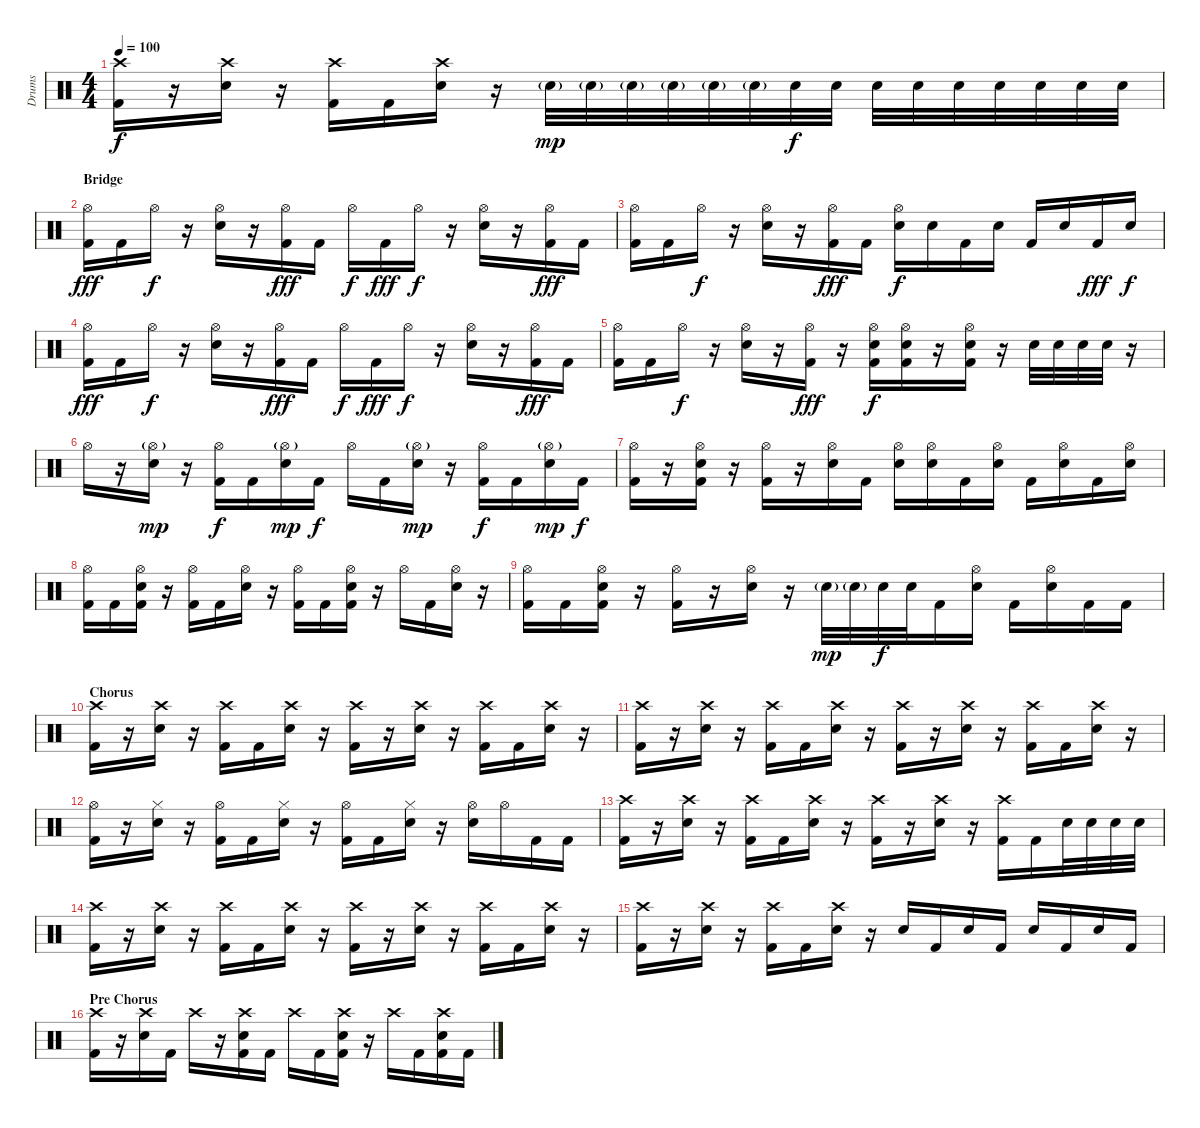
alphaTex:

\track ("Drums" "Drums") {instrument percussion}
\staff {score}
\articulation defaults
\ts (4 4)
\tempo 100
\clef neutral
\ks c
("Crash high (hit)" "Kick (hit) 2").16{dy f} r.16 ("Crash high (hit)" "Electric Snare (hit)").16 r.16 ("Crash high (hit)" "Kick (hit) 2").16 "Kick (hit) 2".16 ("Crash high (hit)" "Electric Snare (hit)").16 r.16 "Electric Snare (hit)"{g}.32{dy mp} "Electric Snare (hit)"{g}.32 "Electric Snare (hit)"{g}.32 "Electric Snare (hit)"{g}.32 "Electric Snare (hit)"{g}.32 "Electric Snare (hit)"{g}.32 "Electric Snare (hit)".32{dy f} "Electric Snare (hit)".32 "Electric Snare (hit)".32 "Electric Snare (hit)".32 "Electric Snare (hit)".32 "Electric Snare (hit)".32 "Electric Snare (hit)".32 "Electric Snare (hit)".32 "Electric Snare (hit)".32 |
\section ("" "Bridge")
("Hi-Hat (open)" "Kick (hit) 2").16{dy fff} "Kick (hit) 2".16 "Hi-Hat (open)".16{dy f} r.16 ("Hi-Hat (open)" "Electric Snare (hit)").16 r.16 ("Hi-Hat (open)" "Kick (hit) 2").16{dy fff} "Kick (hit) 2".16 "Hi-Hat (open)".16{dy f} "Kick (hit) 2".16{dy fff} "Hi-Hat (open)".16{dy f} r.16 ("Hi-Hat (open)" "Electric Snare (hit)").16 r.16 ("Hi-Hat (open)" "Kick (hit) 2").16{dy fff} "Kick (hit) 2".16 |
("Hi-Hat (open)" "Kick (hit) 2").16 "Kick (hit) 2".16 "Hi-Hat (open)".16{dy f} r.16 ("Hi-Hat (open)" "Electric Snare (hit)").16 r.16 ("Hi-Hat (open)" "Kick (hit) 2").16{dy fff} "Kick (hit) 2".16 ("Hi-Hat (open)" "Electric Snare (hit)").16{dy f} "Electric Snare (hit)".16 "Kick (hit) 2".16 "Electric Snare (hit)".16 "Kick (hit) 2".16 "Electric Snare (hit)".16 "Kick (hit) 2".16{dy fff} "Electric Snare (hit)".16{dy f} |
("Hi-Hat (open)" "Kick (hit) 2").16{dy fff} "Kick (hit) 2".16 "Hi-Hat (open)".16{dy f} r.16 ("Hi-Hat (open)" "Electric Snare (hit)").16 r.16 ("Hi-Hat (open)" "Kick (hit) 2").16{dy fff} "Kick (hit) 2".16 "Hi-Hat (open)".16{dy f} "Kick (hit) 2".16{dy fff} "Hi-Hat (open)".16{dy f} r.16 ("Hi-Hat (open)" "Electric Snare (hit)").16 r.16 ("Hi-Hat (open)" "Kick (hit) 2").16{dy fff} "Kick (hit) 2".16 |
("Hi-Hat (open)" "Kick (hit) 2").16 "Kick (hit) 2".16 "Hi-Hat (open)".16{dy f} r.16 ("Hi-Hat (open)" "Electric Snare (hit)").16 r.16 ("Hi-Hat (open)" "Kick (hit) 2").16{dy fff} r.16 ("Hi-Hat (open)" "Electric Snare (hit)" "Kick (hit) 2").16{dy f} ("Hi-Hat (open)" "Electric Snare (hit)" "Kick (hit) 2").16 r.16 ("Hi-Hat (open)" "Electric Snare (hit)" "Kick (hit) 2").16 r.16 "Electric Snare (hit)".32 "Electric Snare (hit)".32 "Electric Snare (hit)".32 "Electric Snare (hit)".32 r.16 |
"Hi-Hat (open)".16 r.16 ("Hi-Hat (open)"{g} "Electric Snare (hit)").16{dy mp} r.16 ("Hi-Hat (open)" "Kick (hit) 2").16{dy f} "Kick (hit) 2".16 ("Hi-Hat (open)"{g} "Electric Snare (hit)").16{dy mp} "Kick (hit) 2".16{dy f} "Hi-Hat (open)".16 "Kick (hit) 2".16 ("Hi-Hat (open)"{g} "Electric Snare (hit)").16{dy mp} r.16 ("Hi-Hat (open)" "Kick (hit) 2").16{dy f} "Kick (hit) 2".16 ("Hi-Hat (open)"{g} "Electric Snare (hit)").16{dy mp} "Kick (hit) 2".16{dy f} |
("Hi-Hat (open)" "Kick (hit) 2").16 r.16 ("Hi-Hat (open)" "Electric Snare (hit)" "Kick (hit) 2").16 r.16 ("Hi-Hat (open)" "Kick (hit) 2").16 r.16 ("Hi-Hat (open)" "Electric Snare (hit)").16 "Kick (hit) 2".16 ("Hi-Hat (open)" "Electric Snare (hit)").16 ("Hi-Hat (open)" "Electric Snare (hit)").16 "Kick (hit) 2".16 ("Hi-Hat (open)" "Electric Snare (hit)").16 "Kick (hit) 2".16 ("Hi-Hat (open)" "Electric Snare (hit)").16 "Kick (hit) 2".16 ("Hi-Hat (open)" "Electric Snare (hit)").16 |
("Hi-Hat (open)" "Kick (hit) 2").16 "Kick (hit) 2".16 ("Hi-Hat (open)" "Electric Snare (hit)" "Kick (hit) 2").16 r.16 ("Hi-Hat (open)" "Kick (hit) 2").16 "Kick (hit) 2".16 ("Hi-Hat (open)" "Electric Snare (hit)").16 r.16 ("Hi-Hat (open)" "Kick (hit) 2").16 "Kick (hit) 2".16 ("Hi-Hat (open)" "Electric Snare (hit)" "Kick (hit) 2").16 r.16 "Hi-Hat (open)".16 "Kick (hit) 2".16 ("Hi-Hat (open)" "Electric Snare (hit)").16 r.16 |
("Hi-Hat (open)" "Kick (hit) 2").16 "Kick (hit) 2".16 ("Hi-Hat (open)" "Electric Snare (hit)" "Kick (hit) 2").16 r.16 ("Hi-Hat (open)" "Kick (hit) 2").16 r.16 ("Hi-Hat (open)" "Electric Snare (hit)").16 r.16 "Electric Snare (hit)"{g}.32{dy mp} "Electric Snare (hit)"{g}.32 "Electric Snare (hit)".32{dy f} "Electric Snare (hit)".32 "Kick (hit) 2".16 ("Hi-Hat (open)" "Electric Snare (hit)").16 "Kick (hit) 2".16 ("Hi-Hat (open)" "Electric Snare (hit)").16 "Kick (hit) 2".16 "Kick (hit) 2".16 |
\section ("" "Chorus")
("Crash high (hit)" "Kick (hit) 2").16 r.16 ("Crash high (hit)" "Electric Snare (hit)").16 r.16 ("Crash high (hit)" "Kick (hit) 2").16 "Kick (hit) 2".16 ("Crash high (hit)" "Electric Snare (hit)").16 r.16 ("Crash high (hit)" "Kick (hit) 2").16 r.16 ("Crash high (hit)" "Electric Snare (hit)").16 r.16 ("Crash high (hit)" "Kick (hit) 2").16 "Kick (hit) 2".16 ("Crash high (hit)" "Electric Snare (hit)").16 r.16 |
("Crash high (hit)" "Kick (hit) 2").16 r.16 ("Crash high (hit)" "Electric Snare (hit)").16 r.16 ("Crash high (hit)" "Kick (hit) 2").16 "Kick (hit) 2".16 ("Crash high (hit)" "Electric Snare (hit)").16 r.16 ("Crash high (hit)" "Kick (hit) 2").16 r.16 ("Crash high (hit)" "Electric Snare (hit)").16 r.16 ("Crash high (hit)" "Kick (hit) 2").16 "Kick (hit) 2".16 ("Crash high (hit)" "Electric Snare (hit)").16 r.16 |
("Hi-Hat (open)" "Kick (hit) 2").16 r.16 ("Hi-Hat (closed)" "Electric Snare (hit)").16 r.16 ("Hi-Hat (open)" "Kick (hit) 2").16 "Kick (hit) 2".16 ("Hi-Hat (closed)" "Electric Snare (hit)").16 r.16 ("Hi-Hat (open)" "Kick (hit) 2").16 "Kick (hit) 2".16 ("Hi-Hat (closed)" "Electric Snare (hit)").16 r.16 ("Hi-Hat (open)" "Electric Snare (hit)").16 "Hi-Hat (open)".16 "Kick (hit) 2".16 "Kick (hit) 2".16 |
("Crash high (hit)" "Kick (hit) 2").16 r.16 ("Crash high (hit)" "Electric Snare (hit)").16 r.16 ("Crash high (hit)" "Kick (hit) 2").16 "Kick (hit) 2".16 ("Crash high (hit)" "Electric Snare (hit)").16 r.16 ("Crash high (hit)" "Kick (hit) 2").16 r.16 ("Crash high (hit)" "Electric Snare (hit)").16 r.16 ("Crash high (hit)" "Kick (hit) 2").16 "Kick (hit) 2".16 "Electric Snare (hit)".32 "Electric Snare (hit)".32 "Electric Snare (hit)".32 "Electric Snare (hit)".32 |
("Crash high (hit)" "Kick (hit) 2").16 r.16 ("Crash high (hit)" "Electric Snare (hit)").16 r.16 ("Crash high (hit)" "Kick (hit) 2").16 "Kick (hit) 2".16 ("Crash high (hit)" "Electric Snare (hit)").16 r.16 ("Crash high (hit)" "Kick (hit) 2").16 r.16 ("Crash high (hit)" "Electric Snare (hit)").16 r.16 ("Crash high (hit)" "Kick (hit) 2").16 "Kick (hit) 2".16 ("Crash high (hit)" "Electric Snare (hit)").16 r.16 |
("Crash high (hit)" "Kick (hit) 2").16 r.16 ("Crash high (hit)" "Electric Snare (hit)").16 r.16 ("Crash high (hit)" "Kick (hit) 2").16 "Kick (hit) 2".16 ("Crash high (hit)" "Electric Snare (hit)").16 r.16 "Electric Snare (hit)".16 "Kick (hit) 2".16 "Electric Snare (hit)".16 "Kick (hit) 2".16 "Electric Snare (hit)".16 "Kick (hit) 2".16 "Electric Snare (hit)".16 "Kick (hit) 2".16 |
\section ("" "Pre Chorus")
("Crash high (hit)" "Kick (hit) 2").16 r.16 ("Crash high (hit)" "Electric Snare (hit)").16 "Kick (hit) 2".16 "Crash high (hit)".16 r.16 ("Crash high (hit)" "Electric Snare (hit)" "Kick (hit) 2").16 "Kick (hit) 2".16 "Crash high (hit)".16 "Kick (hit) 2".16 ("Crash high (hit)" "Electric Snare (hit)" "Kick (hit) 2").16 r.16 "Crash high (hit)".16 "Kick (hit) 2".16 ("Crash high (hit)" "Electric Snare (hit)" "Kick (hit) 2").16 "Kick (hit) 2".16
